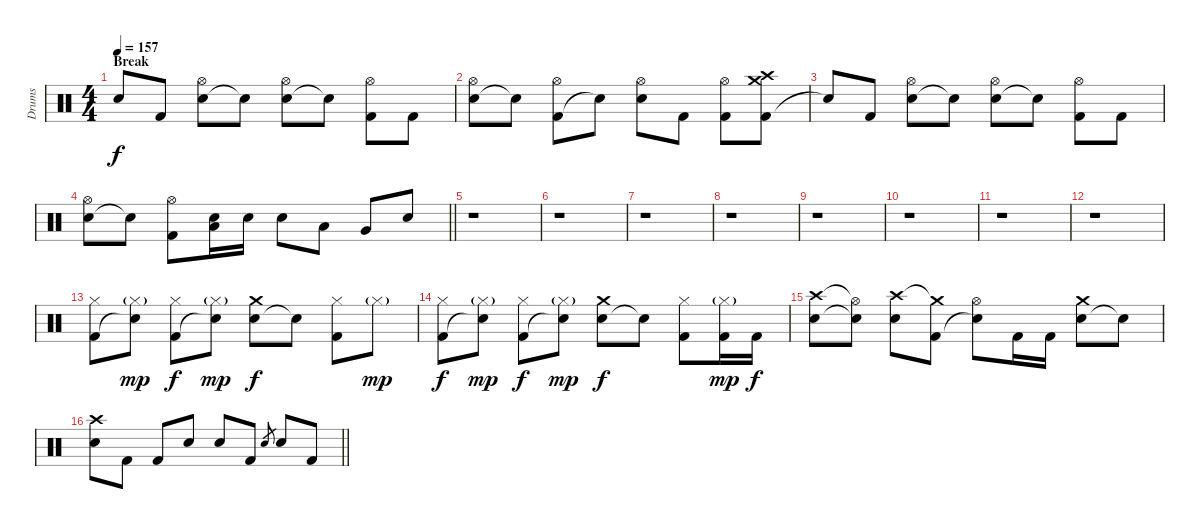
\track ("Drums" "Drums") {instrument percussion}
\staff {score}
\articulation defaults
\ts (4 4)
\section ("" "Break")
\tempo 157
\clef neutral
\ks c "Snare (hit)"{t}.8{dy f} "Kick (hit) 2".8
("Electric Snare (hit)" "Hi-Hat (open)").8 "Snare (hit)"{t}.8 ("Electric Snare (hit)" "Hi-Hat (open)").8 "Snare (hit)"{t}.8 ("Kick (hit) 2" "Hi-Hat (open)").8 "Kick (hit) 2".8 |
("Electric Snare (hit)" "Hi-Hat (open)").8 "Snare (hit)"{t}.8 ("Kick (hit) 2" "Hi-Hat (open)").8 "Snare (hit)"{t}.8 ("Electric Snare (hit)" "Hi-Hat (open)").8 "Kick (hit) 2".8 ("Kick (hit) 2" "Hi-Hat (open)").8 ("Kick (hit) 2" "Crash medium (hit)" "Crash high (hit)").8 |
"Snare (hit)"{t}.8 "Kick (hit) 2".8 ("Electric Snare (hit)" "Hi-Hat (open)").8 "Snare (hit)"{t}.8 ("Electric Snare (hit)" "Hi-Hat (open)").8 "Snare (hit)"{t}.8 ("Kick (hit) 2" "Hi-Hat (open)").8 "Kick (hit) 2".8 |
\barLineRight lightlight
("Electric Snare (hit)" "Hi-Hat (open)").8 "Snare (hit)"{t}.8 ("Kick (hit) 2" "Hi-Hat (open)").8 ("Electric Snare (hit)" "Low Tom (hit)").16 "Electric Snare (hit)".16 "Electric Snare (hit)".8 "Low Tom (hit)".8 "Very Low Tom (hit)".8 "Electric Snare (hit)".8 |
r.1 |
r.1 |
r.1 |
r.1 |
r.1 |
r.1 |
r.1 |
r.1 |
("Kick (hit) 2" "Hi-Hat (closed)").8 ("Snare (hit)"{t} "Hi-Hat (closed)"{g}).8{dy mp} ("Kick (hit) 2" "Hi-Hat (closed)").8{dy f} ("Snare (hit)"{t} "Hi-Hat (closed)"{g}).8{dy mp} ("Electric Snare (hit)" "Crash medium (hit)").8{dy f} "Snare (hit)"{t}.8 ("Kick (hit) 2" "Hi-Hat (closed)").8 "Hi-Hat (closed)"{g}.8{dy mp} |
("Kick (hit) 2" "Hi-Hat (closed)").8{dy f} ("Snare (hit)"{t} "Hi-Hat (closed)"{g}).8{dy mp} ("Kick (hit) 2" "Hi-Hat (closed)").8{dy f} ("Snare (hit)"{t} "Hi-Hat (closed)"{g}).8{dy mp} ("Electric Snare (hit)" "Crash medium (hit)").8{dy f} "Snare (hit)"{t}.8 ("Kick (hit) 2" "Hi-Hat (closed)").8 ("Kick (hit) 2" "Hi-Hat (closed)"{g}).16{dy mp} "Kick (hit) 2".16{dy f} |
("Electric Snare (hit)" "Crash high (hit)").8 ("Snare (hit)"{t} "Hi-Hat (open)"{t}).8 ("Electric Snare (hit)" "Crash high (hit)").8 ("Kick (hit) 2" "Crash medium (hit)"{t}).8 ("Snare (hit)"{t} "Hi-Hat (open)").8 "Kick (hit) 2".16 "Kick (hit) 2".16 ("Electric Snare (hit)" "Crash medium (hit)").8 "Snare (hit)"{t}.8 |
\barLineRight lightlight
("Electric Snare (hit)" "Crash high (hit)").8 "Kick (hit) 2".8 "Kick (hit) 2".8 "Electric Snare (hit)".8 "Electric Snare (hit)".8 "Kick (hit) 2".8 "Electric Snare (hit)".8{gr} "Electric Snare (hit)".8 "Kick (hit) 2".8
